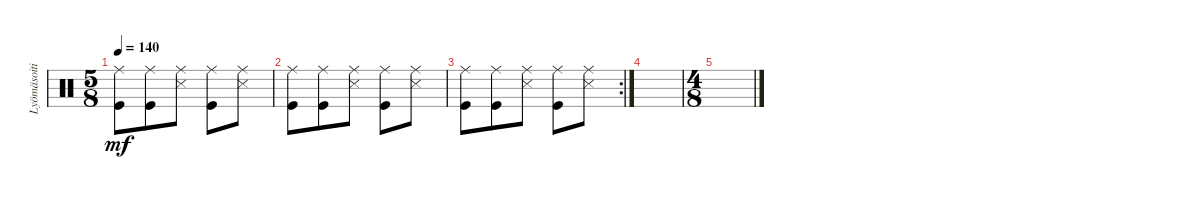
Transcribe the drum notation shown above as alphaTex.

\track ("Lyömäsoitin" "Lyömäsoiti") {instrument percussion}
\staff {score}
\articulation defaults
\ts (5 8)
\tempo 140
\clef neutral
\ks c
("Ride (middle)" "Kick (hit)").8{dy mf} ("Ride (middle)" "Kick (hit)").8 ("Ride (middle)" "Snare (side stick) 3").8 ("Ride (middle)" "Kick (hit)").8 ("Ride (middle)" "Snare (side stick) 3").8 |
("Ride (middle)" "Kick (hit)").8 ("Ride (middle)" "Kick (hit)").8 ("Ride (middle)" "Snare (side stick) 3").8 ("Ride (middle)" "Kick (hit)").8 ("Ride (middle)" "Snare (side stick) 3").8 |
\rc 2
("Ride (middle)" "Kick (hit)").8 ("Ride (middle)" "Kick (hit)").8 ("Ride (middle)" "Snare (side stick) 3").8 ("Ride (middle)" "Kick (hit)").8 ("Ride (middle)" "Snare (side stick) 3").8 |
|
\ts (4 8)
